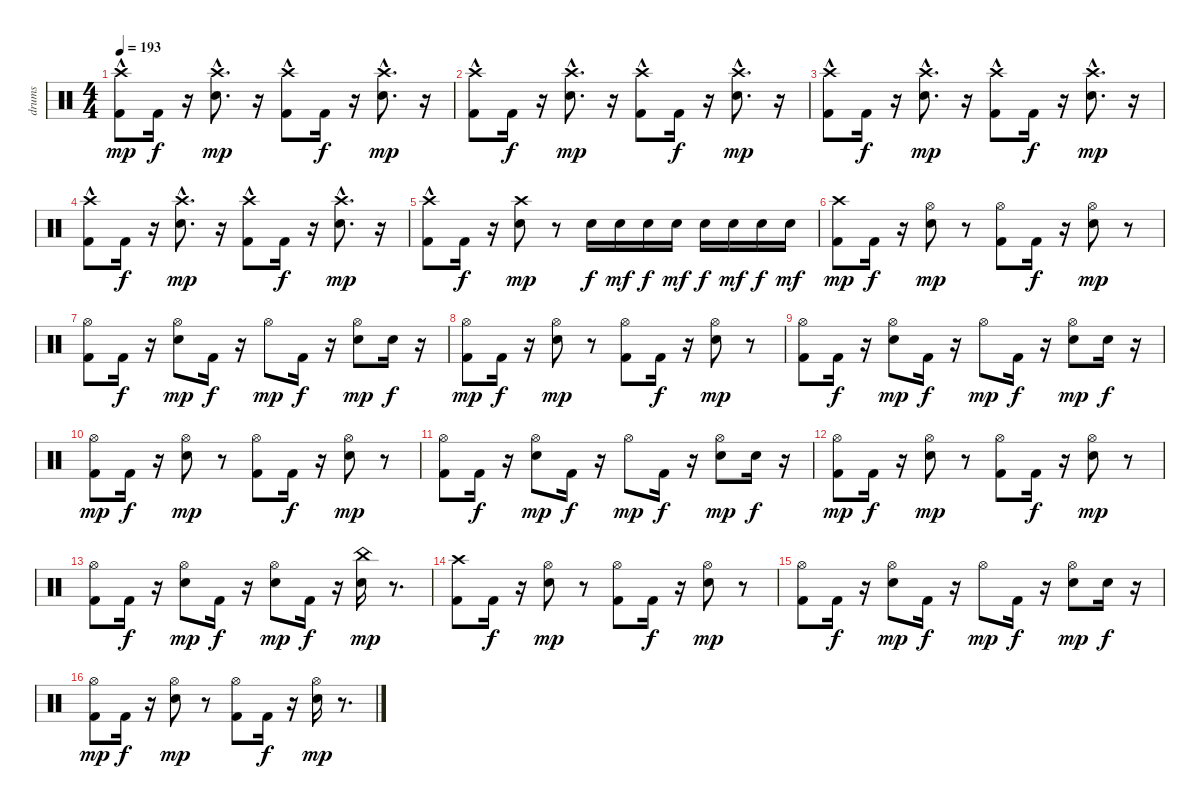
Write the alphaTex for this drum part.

\track ("drums" "drums") {instrument percussion}
\staff {score}
\articulation defaults
\ts (4 4)
\tempo 193
\clef neutral
\ks c
("Kick (hit) 2" "Crash high (hit)"{hac}).8{dy mp} "Kick (hit) 2".16{dy f} r.16 ("Snare (hit) 2" "Crash high (hit)"{hac}).8{d dy mp} r.16 ("Kick (hit) 2" "Crash high (hit)"{hac}).8 "Kick (hit) 2".16{dy f} r.16 ("Snare (hit) 2" "Crash high (hit)"{hac}).8{d dy mp} r.16 |
("Kick (hit) 2" "Crash high (hit)"{hac}).8 "Kick (hit) 2".16{dy f} r.16 ("Snare (hit) 2" "Crash high (hit)"{hac}).8{d dy mp} r.16 ("Kick (hit) 2" "Crash high (hit)"{hac}).8 "Kick (hit) 2".16{dy f} r.16 ("Snare (hit) 2" "Crash high (hit)"{hac}).8{d dy mp} r.16 |
("Kick (hit) 2" "Crash high (hit)"{hac}).8 "Kick (hit) 2".16{dy f} r.16 ("Snare (hit) 2" "Crash high (hit)"{hac}).8{d dy mp} r.16 ("Kick (hit) 2" "Crash high (hit)"{hac}).8 "Kick (hit) 2".16{dy f} r.16 ("Snare (hit) 2" "Crash high (hit)"{hac}).8{d dy mp} r.16 |
("Kick (hit) 2" "Crash high (hit)"{hac}).8 "Kick (hit) 2".16{dy f} r.16 ("Snare (hit) 2" "Crash high (hit)"{hac}).8{d dy mp} r.16 ("Kick (hit) 2" "Crash high (hit)"{hac}).8 "Kick (hit) 2".16{dy f} r.16 ("Snare (hit) 2" "Crash high (hit)"{hac}).8{d dy mp} r.16 |
("Kick (hit) 2" "Crash high (hit)"{hac}).8 "Kick (hit) 2".16{dy f} r.16 ("Snare (hit) 2" "Crash high (hit)").8{dy mp} r.8 "Snare (hit) 2".16{dy f} "Snare (hit) 2".16{dy mf} "Snare (hit) 2".16{dy f} "Snare (hit) 2".16{dy mf} "Snare (hit) 2".16{dy f} "Snare (hit) 2".16{dy mf} "Snare (hit) 2".16{dy f} "Snare (hit) 2".16{dy mf} |
("Kick (hit) 2" "Crash high (hit)").8{dy mp} "Kick (hit) 2".16{dy f} r.16 ("Snare (hit) 2" "Hi-Hat (open)").8{dy mp} r.8 ("Kick (hit) 2" "Hi-Hat (open)").8 "Kick (hit) 2".16{dy f} r.16 ("Snare (hit) 2" "Hi-Hat (open)").8{dy mp} r.8 |
("Kick (hit) 2" "Hi-Hat (open)").8 "Kick (hit) 2".16{dy f} r.16 ("Snare (hit) 2" "Hi-Hat (open)").8{dy mp} "Kick (hit) 2".16{dy f} r.16 "Hi-Hat (open)".8{dy mp} "Kick (hit) 2".16{dy f} r.16 ("Snare (hit) 2" "Hi-Hat (open)").8{dy mp} "Snare (hit) 2".16{dy f} r.16 |
("Kick (hit) 2" "Hi-Hat (open)").8{dy mp} "Kick (hit) 2".16{dy f} r.16 ("Snare (hit) 2" "Hi-Hat (open)").8{dy mp} r.8 ("Kick (hit) 2" "Hi-Hat (open)").8 "Kick (hit) 2".16{dy f} r.16 ("Snare (hit) 2" "Hi-Hat (open)").8{dy mp} r.8 |
("Kick (hit) 2" "Hi-Hat (open)").8 "Kick (hit) 2".16{dy f} r.16 ("Snare (hit) 2" "Hi-Hat (open)").8{dy mp} "Kick (hit) 2".16{dy f} r.16 "Hi-Hat (open)".8{dy mp} "Kick (hit) 2".16{dy f} r.16 ("Snare (hit) 2" "Hi-Hat (open)").8{dy mp} "Snare (hit) 2".16{dy f} r.16 |
("Kick (hit) 2" "Hi-Hat (open)").8{dy mp} "Kick (hit) 2".16{dy f} r.16 ("Snare (hit) 2" "Hi-Hat (open)").8{dy mp} r.8 ("Kick (hit) 2" "Hi-Hat (open)").8 "Kick (hit) 2".16{dy f} r.16 ("Snare (hit) 2" "Hi-Hat (open)").8{dy mp} r.8 |
("Kick (hit) 2" "Hi-Hat (open)").8 "Kick (hit) 2".16{dy f} r.16 ("Snare (hit) 2" "Hi-Hat (open)").8{dy mp} "Kick (hit) 2".16{dy f} r.16 "Hi-Hat (open)".8{dy mp} "Kick (hit) 2".16{dy f} r.16 ("Snare (hit) 2" "Hi-Hat (open)").8{dy mp} "Snare (hit) 2".16{dy f} r.16 |
("Kick (hit) 2" "Hi-Hat (open)").8{dy mp} "Kick (hit) 2".16{dy f} r.16 ("Snare (hit) 2" "Hi-Hat (open)").8{dy mp} r.8 ("Kick (hit) 2" "Hi-Hat (open)").8 "Kick (hit) 2".16{dy f} r.16 ("Snare (hit) 2" "Hi-Hat (open)").8{dy mp} r.8 |
("Kick (hit) 2" "Hi-Hat (open)").8 "Kick (hit) 2".16{dy f} r.16 ("Snare (hit) 2" "Hi-Hat (open)").8{dy mp} "Kick (hit) 2".16{dy f} r.16 ("Snare (hit) 2" "Hi-Hat (open)").8{dy mp} "Kick (hit) 2".16{dy f} r.16 ("Snare (hit) 2" "China (hit)").16{dy mp} r.8{d} |
("Kick (hit) 2" "Crash high (hit)").8 "Kick (hit) 2".16{dy f} r.16 ("Snare (hit) 2" "Hi-Hat (open)").8{dy mp} r.8 ("Kick (hit) 2" "Hi-Hat (open)").8 "Kick (hit) 2".16{dy f} r.16 ("Snare (hit) 2" "Hi-Hat (open)").8{dy mp} r.8 |
("Kick (hit) 2" "Hi-Hat (open)").8 "Kick (hit) 2".16{dy f} r.16 ("Snare (hit) 2" "Hi-Hat (open)").8{dy mp} "Kick (hit) 2".16{dy f} r.16 "Hi-Hat (open)".8{dy mp} "Kick (hit) 2".16{dy f} r.16 ("Snare (hit) 2" "Hi-Hat (open)").8{dy mp} "Snare (hit) 2".16{dy f} r.16 |
("Kick (hit) 2" "Hi-Hat (open)").8{dy mp} "Kick (hit) 2".16{dy f} r.16 ("Snare (hit) 2" "Hi-Hat (open)").8{dy mp} r.8 ("Kick (hit) 2" "Hi-Hat (open)").8 "Kick (hit) 2".16{dy f} r.16 ("Snare (hit) 2" "Hi-Hat (open)").16{dy mp} r.8{d}
